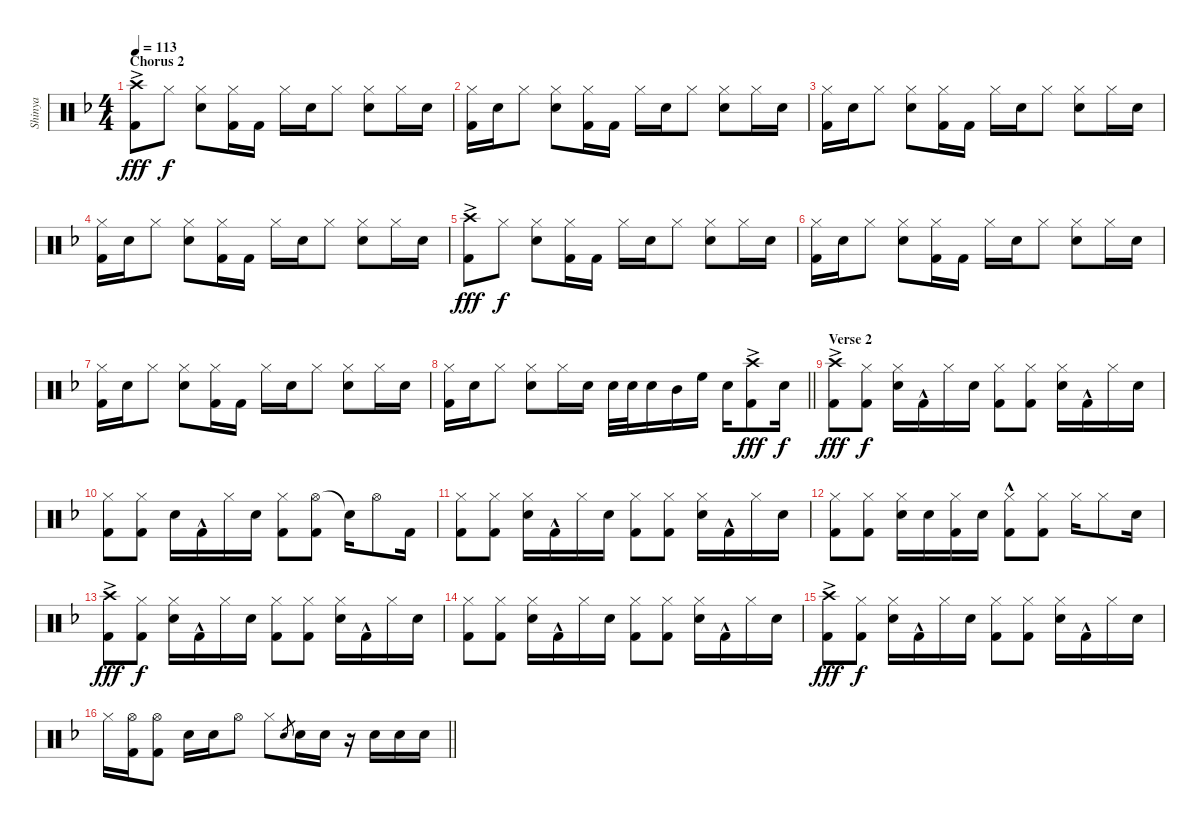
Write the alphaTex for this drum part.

\track ("Shinya" "Shinya") {instrument percussion}
\staff {score}
\articulation defaults
\ts (4 4)
\section ("" "Chorus 2")
\tempo 113
\clef neutral
\ks f
("Crash high (hit)"{ac} "Kick (hit) 2").8{dy fff} "Hi-Hat (closed)".8{dy f} ("Hi-Hat (closed)" "Snare (hit) 2").8 ("Hi-Hat (closed)" "Kick (hit) 2").16 "Kick (hit) 2".16 "Hi-Hat (closed)".16 "Snare (hit) 2".16 "Hi-Hat (closed)".8 ("Hi-Hat (closed)" "Snare (hit) 2").8 "Hi-Hat (closed)".16 "Snare (hit) 2".16 |
("Hi-Hat (closed)" "Kick (hit) 2").16 "Snare (hit) 2".16 "Hi-Hat (closed)".8 ("Hi-Hat (closed)" "Snare (hit) 2").8 ("Hi-Hat (closed)" "Kick (hit) 2").16 "Kick (hit) 2".16 "Hi-Hat (closed)".16 "Snare (hit) 2".16 "Hi-Hat (closed)".8 ("Hi-Hat (closed)" "Snare (hit) 2").8 "Hi-Hat (closed)".16 "Snare (hit) 2".16 |
("Hi-Hat (closed)" "Kick (hit) 2").16 "Snare (hit) 2".16 "Hi-Hat (closed)".8 ("Hi-Hat (closed)" "Snare (hit) 2").8 ("Hi-Hat (closed)" "Kick (hit) 2").16 "Kick (hit) 2".16 "Hi-Hat (closed)".16 "Snare (hit) 2".16 "Hi-Hat (closed)".8 ("Hi-Hat (closed)" "Snare (hit) 2").8 "Hi-Hat (closed)".16 "Snare (hit) 2".16 |
("Hi-Hat (closed)" "Kick (hit) 2").16 "Snare (hit) 2".16 "Hi-Hat (closed)".8 ("Hi-Hat (closed)" "Snare (hit) 2").8 ("Hi-Hat (closed)" "Kick (hit) 2").16 "Kick (hit) 2".16 "Hi-Hat (closed)".16 "Snare (hit) 2".16 "Hi-Hat (closed)".8 ("Hi-Hat (closed)" "Snare (hit) 2").8 "Hi-Hat (closed)".16 "Snare (hit) 2".16 |
("Crash high (hit)"{ac} "Kick (hit) 2").8{dy fff} "Hi-Hat (closed)".8{dy f} ("Hi-Hat (closed)" "Snare (hit) 2").8 ("Hi-Hat (closed)" "Kick (hit) 2").16 "Kick (hit) 2".16 "Hi-Hat (closed)".16 "Snare (hit) 2".16 "Hi-Hat (closed)".8 ("Hi-Hat (closed)" "Snare (hit) 2").8 "Hi-Hat (closed)".16 "Snare (hit) 2".16 |
("Hi-Hat (closed)" "Kick (hit) 2").16 "Snare (hit) 2".16 "Hi-Hat (closed)".8 ("Hi-Hat (closed)" "Snare (hit) 2").8 ("Hi-Hat (closed)" "Kick (hit) 2").16 "Kick (hit) 2".16 "Hi-Hat (closed)".16 "Snare (hit) 2".16 "Hi-Hat (closed)".8 ("Hi-Hat (closed)" "Snare (hit) 2").8 "Hi-Hat (closed)".16 "Snare (hit) 2".16 |
("Hi-Hat (closed)" "Kick (hit) 2").16 "Snare (hit) 2".16 "Hi-Hat (closed)".8 ("Hi-Hat (closed)" "Snare (hit) 2").8 ("Hi-Hat (closed)" "Kick (hit) 2").16 "Kick (hit) 2".16 "Hi-Hat (closed)".16 "Snare (hit) 2".16 "Hi-Hat (closed)".8 ("Hi-Hat (closed)" "Snare (hit) 2").8 "Hi-Hat (closed)".16 "Snare (hit) 2".16 |
\barLineRight lightlight
("Hi-Hat (closed)" "Kick (hit) 2").16 "Snare (hit) 2".16 "Hi-Hat (closed)".8 ("Hi-Hat (closed)" "Snare (hit) 2").8 "Hi-Hat (closed)".16 "Snare (hit) 2".16 "Snare (hit) 2".32 "Snare (hit) 2".32 "Snare (hit) 2".16 "Mid Tom (hit)".16 "High Floor Tom (hit)".16 "Snare (hit) 2".16 ("Crash high (hit)"{ac} "Kick (hit) 2").8{dy fff} "Snare (hit) 2".16{dy f} |
\section ("" "Verse 2")
("Crash high (hit)"{ac} "Kick (hit) 2").8{dy fff} ("Hi-Hat (closed)" "Kick (hit) 2").8{dy f} ("Hi-Hat (closed)" "Snare (hit) 2").16 "Kick (hit) 2"{hac}.16 "Hi-Hat (closed)".16 "Snare (hit) 2".16 ("Hi-Hat (closed)" "Kick (hit) 2").8 ("Hi-Hat (closed)" "Kick (hit) 2").8 ("Hi-Hat (closed)" "Snare (hit) 2").16 "Kick (hit) 2"{hac}.16 "Hi-Hat (closed)".16 "Snare (hit) 2".16 |
("Hi-Hat (closed)" "Kick (hit) 2").8 ("Hi-Hat (closed)" "Kick (hit) 2").8 "Snare (hit) 2".16 "Kick (hit) 2"{hac}.16 "Hi-Hat (closed)".16 "Snare (hit) 2".16 ("Hi-Hat (closed)" "Kick (hit) 2").8 ("Hi-Hat (open)" "Kick (hit) 2").8 "Snare (hit)"{t}.16 "Hi-Hat (open)".8 "Kick (hit) 2".16 |
("Hi-Hat (closed)" "Kick (hit) 2").8 ("Hi-Hat (closed)" "Kick (hit) 2").8 ("Hi-Hat (closed)" "Snare (hit) 2").16 "Kick (hit) 2"{hac}.16 "Hi-Hat (closed)".16 "Snare (hit) 2".16 ("Hi-Hat (closed)" "Kick (hit) 2").8 ("Hi-Hat (closed)" "Kick (hit) 2").8 ("Hi-Hat (closed)" "Snare (hit) 2").16 "Kick (hit) 2"{hac}.16 "Hi-Hat (closed)".16 "Snare (hit) 2".16 |
("Hi-Hat (closed)" "Kick (hit) 2").8 ("Hi-Hat (closed)" "Kick (hit) 2").8 ("Hi-Hat (closed)" "Snare (hit) 2").16 "Snare (hit) 2".16 ("Hi-Hat (closed)" "Kick (hit) 2").16 "Snare (hit) 2".16 ("Hi-Hat (closed)"{hac} "Kick (hit) 2").8 ("Hi-Hat (closed)" "Kick (hit) 2").8 "Hi-Hat (closed)".16 "Hi-Hat (closed)".8 "Snare (hit) 2".16 |
("Crash high (hit)"{ac} "Kick (hit) 2").8{dy fff} ("Hi-Hat (closed)" "Kick (hit) 2").8{dy f} ("Hi-Hat (closed)" "Snare (hit) 2").16 "Kick (hit) 2"{hac}.16 "Hi-Hat (closed)".16 "Snare (hit) 2".16 ("Hi-Hat (closed)" "Kick (hit) 2").8 ("Hi-Hat (closed)" "Kick (hit) 2").8 ("Hi-Hat (closed)" "Snare (hit) 2").16 "Kick (hit) 2"{hac}.16 "Hi-Hat (closed)".16 "Snare (hit) 2".16 |
("Hi-Hat (closed)" "Kick (hit) 2").8 ("Hi-Hat (closed)" "Kick (hit) 2").8 ("Hi-Hat (closed)" "Snare (hit) 2").16 "Kick (hit) 2"{hac}.16 "Hi-Hat (closed)".16 "Snare (hit) 2".16 ("Hi-Hat (closed)" "Kick (hit) 2").8 ("Hi-Hat (closed)" "Kick (hit) 2").8 ("Hi-Hat (closed)" "Snare (hit) 2").16 "Kick (hit) 2"{hac}.16 "Hi-Hat (closed)".16 "Snare (hit) 2".16 |
("Crash high (hit)"{ac} "Kick (hit) 2").8{dy fff} ("Hi-Hat (closed)" "Kick (hit) 2").8{dy f} ("Hi-Hat (closed)" "Snare (hit) 2").16 "Kick (hit) 2"{hac}.16 "Hi-Hat (closed)".16 "Snare (hit) 2".16 ("Hi-Hat (closed)" "Kick (hit) 2").8 ("Hi-Hat (closed)" "Kick (hit) 2").8 ("Hi-Hat (closed)" "Snare (hit) 2").16 "Kick (hit) 2"{hac}.16 "Hi-Hat (closed)".16 "Snare (hit) 2".16 |
\barLineRight lightlight "Hi-Hat (closed)".16
("Hi-Hat (open)" "Kick (hit) 2").16 ("Hi-Hat (open)" "Kick (hit) 2").8 "Snare (hit) 2".16 "Snare (hit) 2".16 "Hi-Hat (open)".8 "Hi-Hat (closed)".8 "Snare (hit) 2".8{gr} "Snare (hit) 2".16 "Snare (hit) 2".16 r.16 "Snare (hit) 2".16 "Snare (hit) 2".16 "Snare (hit) 2".16
